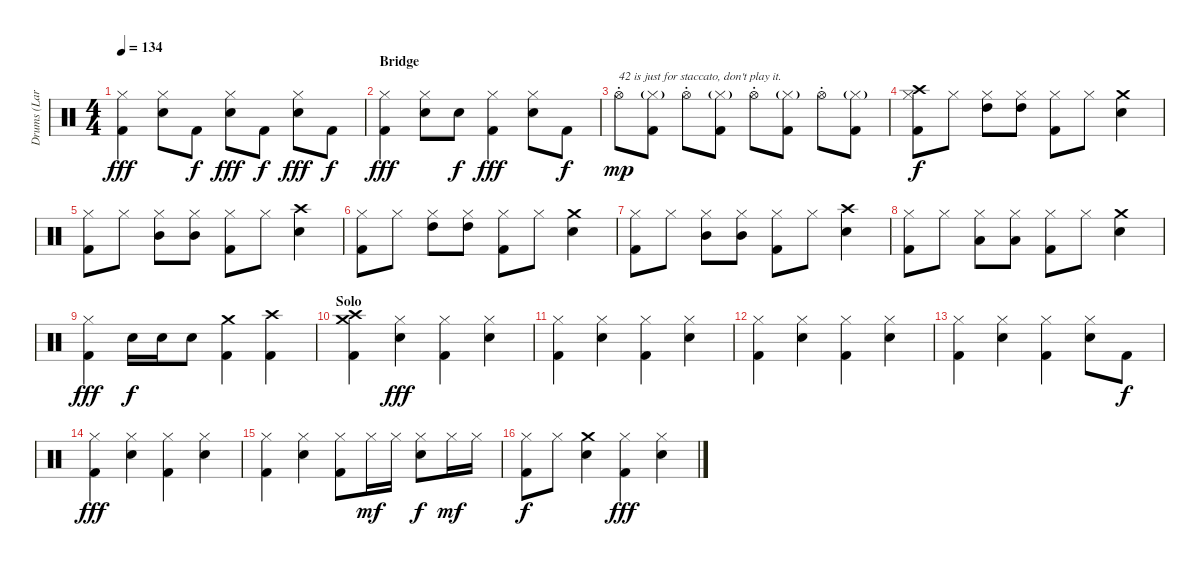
\track ("Drums (Lars)" "Drums (Lar") {instrument percussion}
\staff {score}
\articulation defaults
\ts (4 4)
\tempo 134
\clef neutral
\ks c
("Hi-Hat (closed)" "Kick (hit) 2").4{dy fff} ("Hi-Hat (closed)" "Snare (hit) 2").8 "Kick (hit) 2".8{dy f} ("Hi-Hat (closed)" "Snare (hit) 2").8{dy fff} "Kick (hit) 2".8{dy f} ("Hi-Hat (closed)" "Snare (hit) 2").8{dy fff} "Kick (hit) 2".8{dy f} |
\section ("" "Bridge")
("Hi-Hat (closed)" "Kick (hit) 2").4{dy fff} ("Hi-Hat (closed)" "Snare (hit) 2").8 "Snare (hit) 2".8{dy f} ("Hi-Hat (closed)" "Kick (hit) 2").4{dy fff} ("Hi-Hat (closed)" "Snare (hit) 2").8 "Kick (hit) 2".8{dy f} |
"Hi-Hat (open)"{st}.8{txt "42 is just for staccato, don't play it." dy mp} ("Hi-Hat (closed)"{g} "Kick (hit) 2").8 "Hi-Hat (open)"{st}.8 ("Hi-Hat (closed)"{g} "Kick (hit) 2").8 "Hi-Hat (open)"{st}.8 ("Hi-Hat (closed)"{g} "Kick (hit) 2").8 "Hi-Hat (open)"{st}.8 ("Hi-Hat (closed)"{g} "Kick (hit) 2").8 |
("Crash high (hit)" "Hi-Hat (closed)" "Kick (hit) 2").8{dy f} "Hi-Hat (closed)".8 ("Hi-Hat (closed)" "High Tom (hit)").8 ("Hi-Hat (closed)" "High Tom (hit)").8 ("Hi-Hat (closed)" "Kick (hit) 2").8 "Hi-Hat (closed)".8 ("Crash medium (hit)" "Snare (hit) 2").4 |
("Hi-Hat (closed)" "Kick (hit) 2").8 "Hi-Hat (closed)".8 ("Hi-Hat (closed)" "Mid Tom (hit)").8 ("Hi-Hat (closed)" "Mid Tom (hit)").8 ("Hi-Hat (closed)" "Kick (hit) 2").8 "Hi-Hat (closed)".8 ("Crash high (hit)" "Snare (hit) 2").4 |
("Hi-Hat (closed)" "Kick (hit) 2").8 "Hi-Hat (closed)".8 ("Hi-Hat (closed)" "High Tom (hit)").8 ("Hi-Hat (closed)" "High Tom (hit)").8 ("Hi-Hat (closed)" "Kick (hit) 2").8 "Hi-Hat (closed)".8 ("Crash medium (hit)" "Snare (hit) 2").4 |
("Hi-Hat (closed)" "Kick (hit) 2").8 "Hi-Hat (closed)".8 ("Hi-Hat (closed)" "Mid Tom (hit)").8 ("Hi-Hat (closed)" "Mid Tom (hit)").8 ("Hi-Hat (closed)" "Kick (hit) 2").8 "Hi-Hat (closed)".8 ("Crash high (hit)" "Snare (hit) 2").4 |
("Hi-Hat (closed)" "Kick (hit) 2").8 "Hi-Hat (closed)".8 ("Hi-Hat (closed)" "Low Tom (hit)").8 ("Hi-Hat (closed)" "Low Tom (hit)").8 ("Hi-Hat (closed)" "Kick (hit) 2").8 "Hi-Hat (closed)".8 ("Crash medium (hit)" "Snare (hit) 2").4 |
("Hi-Hat (closed)" "Kick (hit) 2").4{dy fff} "Snare (hit) 2".16{dy f} "Snare (hit) 2".16 "Snare (hit) 2".8 ("Crash medium (hit)" "Kick (hit) 2").4 ("Crash high (hit)" "Kick (hit) 2").4 |
\section ("" "Solo")
("Crash high (hit)" "Crash medium (hit)" "Kick (hit) 2").4 ("Hi-Hat (closed)" "Snare (hit) 2").4{dy fff} ("Hi-Hat (closed)" "Kick (hit) 2").4 ("Hi-Hat (closed)" "Snare (hit) 2").4 |
("Hi-Hat (closed)" "Kick (hit) 2").4 ("Hi-Hat (closed)" "Snare (hit) 2").4 ("Hi-Hat (closed)" "Kick (hit) 2").4 ("Hi-Hat (closed)" "Snare (hit) 2").4 |
("Hi-Hat (closed)" "Kick (hit) 2").4 ("Hi-Hat (closed)" "Snare (hit) 2").4 ("Hi-Hat (closed)" "Kick (hit) 2").4 ("Hi-Hat (closed)" "Snare (hit) 2").4 |
("Hi-Hat (closed)" "Kick (hit) 2").4 ("Hi-Hat (closed)" "Snare (hit) 2").4 ("Hi-Hat (closed)" "Kick (hit) 2").4 ("Hi-Hat (closed)" "Snare (hit) 2").8 "Kick (hit) 2".8{dy f} |
("Hi-Hat (closed)" "Kick (hit) 2").4{dy fff} ("Hi-Hat (closed)" "Snare (hit) 2").4 ("Hi-Hat (closed)" "Kick (hit) 2").4 ("Hi-Hat (closed)" "Snare (hit) 2").4 |
("Hi-Hat (closed)" "Kick (hit) 2").4 ("Hi-Hat (closed)" "Snare (hit) 2").4 ("Hi-Hat (closed)" "Kick (hit) 2").8 "Hi-Hat (closed)".16{dy mf} "Hi-Hat (closed)".16 ("Hi-Hat (closed)" "Snare (hit) 2").8{dy f} "Hi-Hat (closed)".16{dy mf} "Hi-Hat (closed)".16 |
("Hi-Hat (closed)" "Kick (hit) 2").8{dy f} "Hi-Hat (closed)".8 ("Crash medium (hit)" "Snare (hit) 2").4 ("Hi-Hat (closed)" "Kick (hit) 2").4{dy fff} ("Hi-Hat (closed)" "Snare (hit) 2").4
